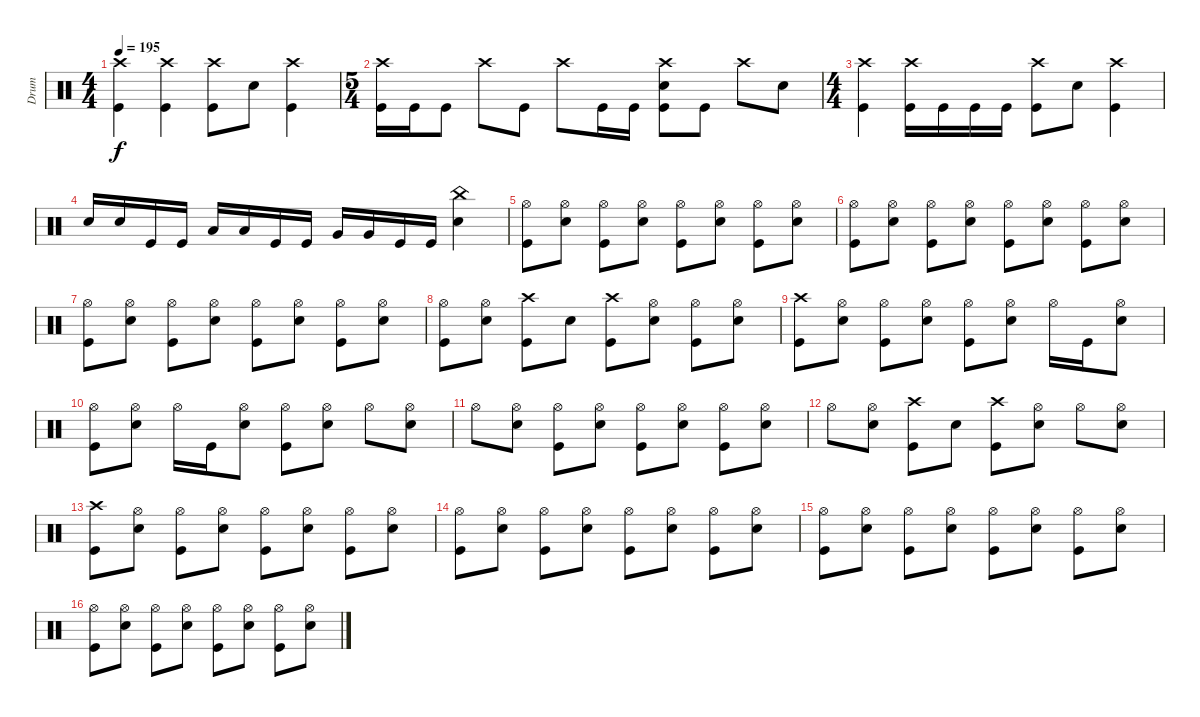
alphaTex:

\track ("Drum" "Drum") {instrument percussion}
\staff {score}
\articulation defaults
\ts (4 4)
\tempo 195
\clef neutral
\ks c
("Crash high (hit)" "Kick (hit)").4{dy f} ("Crash high (hit)" "Kick (hit)").4 ("Crash high (hit)" "Kick (hit)").8 "Snare (hit) 2".8 ("Crash high (hit)" "Kick (hit)").4 |
\ts (5 4)
("Crash high (hit)" "Kick (hit)").16 "Kick (hit)".16 "Kick (hit)".8 "Crash high (hit)".8 "Kick (hit)".8 "Crash high (hit)".8 "Kick (hit)".16 "Kick (hit)".16 ("Crash high (hit)" "Snare (hit) 2" "Kick (hit)").8 "Kick (hit)".8 "Crash high (hit)".8 "Snare (hit) 2".8 |
\ts (4 4)
("Crash high (hit)" "Kick (hit)").4 ("Crash high (hit)" "Kick (hit)").16 "Kick (hit)".16 "Kick (hit)".16 "Kick (hit)".16 ("Crash high (hit)" "Kick (hit)").8 "Snare (hit) 2".8 ("Crash high (hit)" "Kick (hit)").4 |
"Snare (hit) 2".16 "Snare (hit) 2".16 "Kick (hit)".16 "Kick (hit)".16 "Low Tom (hit)".16 "Low Tom (hit)".16 "Kick (hit)".16 "Kick (hit)".16 "Very Low Tom (hit)".16 "Very Low Tom (hit)".16 "Kick (hit)".16 "Kick (hit)".16 ("China (hit)" "Snare (hit) 2").4 |
("Hi-Hat (open)" "Kick (hit)").8 ("Hi-Hat (open)" "Snare (hit) 2").8 ("Hi-Hat (open)" "Kick (hit)").8 ("Hi-Hat (open)" "Snare (hit) 2").8 ("Hi-Hat (open)" "Kick (hit)").8 ("Hi-Hat (open)" "Snare (hit) 2").8 ("Hi-Hat (open)" "Kick (hit)").8 ("Hi-Hat (open)" "Snare (hit) 2").8 |
("Hi-Hat (open)" "Kick (hit)").8 ("Hi-Hat (open)" "Snare (hit) 2").8 ("Hi-Hat (open)" "Kick (hit)").8 ("Hi-Hat (open)" "Snare (hit) 2").8 ("Hi-Hat (open)" "Kick (hit)").8 ("Hi-Hat (open)" "Snare (hit) 2").8 ("Hi-Hat (open)" "Kick (hit)").8 ("Hi-Hat (open)" "Snare (hit) 2").8 |
("Hi-Hat (open)" "Kick (hit)").8 ("Hi-Hat (open)" "Snare (hit) 2").8 ("Hi-Hat (open)" "Kick (hit)").8 ("Hi-Hat (open)" "Snare (hit) 2").8 ("Hi-Hat (open)" "Kick (hit)").8 ("Hi-Hat (open)" "Snare (hit) 2").8 ("Hi-Hat (open)" "Kick (hit)").8 ("Hi-Hat (open)" "Snare (hit) 2").8 |
("Hi-Hat (open)" "Kick (hit)").8 ("Hi-Hat (open)" "Snare (hit) 2").8 ("Crash high (hit)" "Kick (hit)").8 "Snare (hit) 2".8 ("Crash high (hit)" "Kick (hit)").8 ("Hi-Hat (open)" "Snare (hit) 2").8 ("Hi-Hat (open)" "Kick (hit)").8 ("Hi-Hat (open)" "Snare (hit) 2").8 |
("Crash high (hit)" "Kick (hit)").8 ("Hi-Hat (open)" "Snare (hit) 2").8 ("Hi-Hat (open)" "Kick (hit)").8 ("Hi-Hat (open)" "Snare (hit) 2").8 ("Hi-Hat (open)" "Kick (hit)").8 ("Hi-Hat (open)" "Snare (hit) 2").8 "Hi-Hat (open)".16 "Kick (hit)".16 ("Hi-Hat (open)" "Snare (hit) 2").8 |
("Hi-Hat (open)" "Kick (hit)").8 ("Hi-Hat (open)" "Snare (hit) 2").8 "Hi-Hat (open)".16 "Kick (hit)".16 ("Hi-Hat (open)" "Snare (hit) 2").8 ("Hi-Hat (open)" "Kick (hit)").8 ("Hi-Hat (open)" "Snare (hit) 2").8 "Hi-Hat (open)".8 ("Hi-Hat (open)" "Snare (hit) 2").8 |
"Hi-Hat (open)".8 ("Hi-Hat (open)" "Snare (hit) 2").8 ("Hi-Hat (open)" "Kick (hit)").8 ("Hi-Hat (open)" "Snare (hit) 2").8 ("Hi-Hat (open)" "Kick (hit)").8 ("Hi-Hat (open)" "Snare (hit) 2").8 ("Hi-Hat (open)" "Kick (hit)").8 ("Hi-Hat (open)" "Snare (hit) 2").8 |
"Hi-Hat (open)".8 ("Hi-Hat (open)" "Snare (hit) 2").8 ("Crash high (hit)" "Kick (hit)").8 "Snare (hit) 2".8 ("Crash high (hit)" "Kick (hit)").8 ("Hi-Hat (open)" "Snare (hit) 2").8 "Hi-Hat (open)".8 ("Hi-Hat (open)" "Snare (hit) 2").8 |
("Crash high (hit)" "Kick (hit)").8 ("Hi-Hat (open)" "Snare (hit) 2").8 ("Hi-Hat (open)" "Kick (hit)").8 ("Hi-Hat (open)" "Snare (hit) 2").8 ("Hi-Hat (open)" "Kick (hit)").8 ("Hi-Hat (open)" "Snare (hit) 2").8 ("Hi-Hat (open)" "Kick (hit)").8 ("Hi-Hat (open)" "Snare (hit) 2").8 |
("Hi-Hat (open)" "Kick (hit)").8 ("Hi-Hat (open)" "Snare (hit) 2").8 ("Hi-Hat (open)" "Kick (hit)").8 ("Hi-Hat (open)" "Snare (hit) 2").8 ("Hi-Hat (open)" "Kick (hit)").8 ("Hi-Hat (open)" "Snare (hit) 2").8 ("Hi-Hat (open)" "Kick (hit)").8 ("Hi-Hat (open)" "Snare (hit) 2").8 |
("Hi-Hat (open)" "Kick (hit)").8 ("Hi-Hat (open)" "Snare (hit) 2").8 ("Hi-Hat (open)" "Kick (hit)").8 ("Hi-Hat (open)" "Snare (hit) 2").8 ("Hi-Hat (open)" "Kick (hit)").8 ("Hi-Hat (open)" "Snare (hit) 2").8 ("Hi-Hat (open)" "Kick (hit)").8 ("Hi-Hat (open)" "Snare (hit) 2").8 |
("Hi-Hat (open)" "Kick (hit)").8 ("Hi-Hat (open)" "Snare (hit) 2").8 ("Hi-Hat (open)" "Kick (hit)").8 ("Hi-Hat (open)" "Snare (hit) 2").8 ("Hi-Hat (open)" "Kick (hit)").8 ("Hi-Hat (open)" "Snare (hit) 2").8 ("Hi-Hat (open)" "Kick (hit)").8 ("Hi-Hat (open)" "Snare (hit) 2").8
